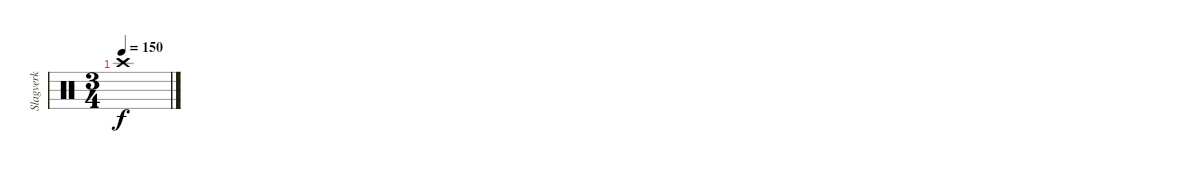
\track ("Slagverk" "Slagverk") {instrument percussion}
\staff {score}
\articulation defaults
\ts (3 4)
\tempo 150
\clef neutral
\ks c "Crash high (hit)".1{dy f}
